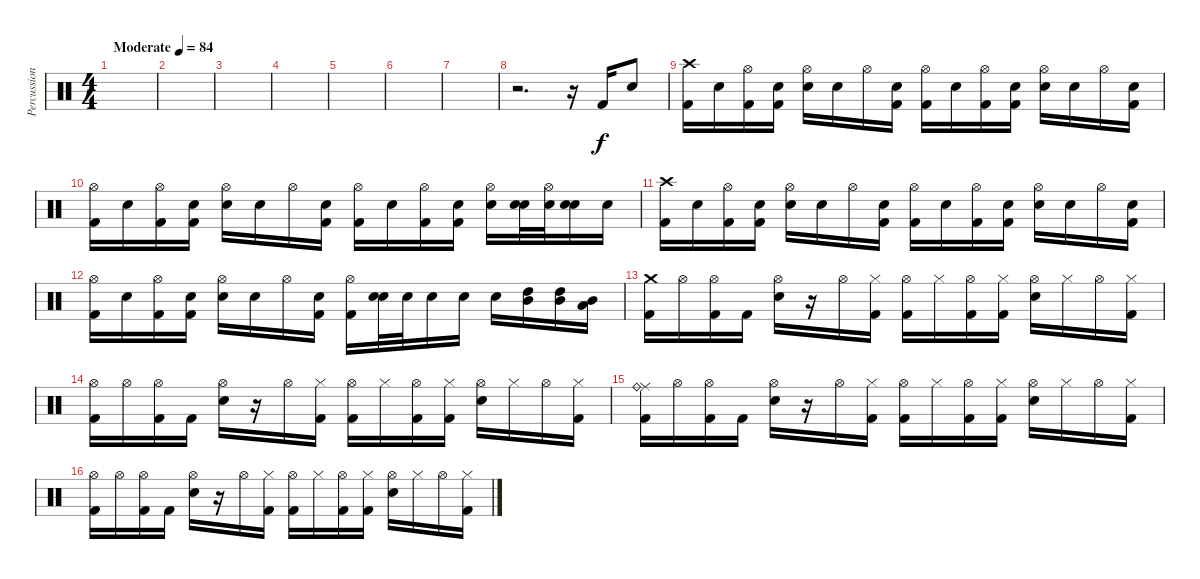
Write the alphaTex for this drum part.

\track ("Percussion" "Percussion") {instrument percussion}
\staff {score}
\articulation defaults
\ts (4 4)
\tempo (84 "Moderate")
\clef neutral
\ks c
|
|
|
|
|
|
|
r.2{d} r.16 "Kick (hit) 2".16 "Snare (hit) 2".8 |
("Crash high (hit)" "Kick (hit) 2").16 "Snare (hit)".16 ("Hi-Hat (open)" "Kick (hit) 2").16 ("Snare (hit)" "Kick (hit) 2").16 ("Hi-Hat (open)" "Snare (hit) 2").16 "Snare (hit)".16 "Hi-Hat (open)".16 ("Snare (hit)" "Kick (hit) 2").16 ("Hi-Hat (open)" "Kick (hit) 2").16 "Snare (hit)".16 ("Hi-Hat (open)" "Kick (hit) 2").16 ("Snare (hit)" "Kick (hit) 2").16 ("Hi-Hat (open)" "Snare (hit) 2").16 "Snare (hit)".16 "Hi-Hat (open)".16 ("Snare (hit)" "Kick (hit) 2").16 |
("Hi-Hat (open)" "Kick (hit) 2").16 "Snare (hit)".16 ("Hi-Hat (open)" "Kick (hit) 2").16 ("Snare (hit)" "Kick (hit) 2").16 ("Hi-Hat (open)" "Snare (hit) 2").16 "Snare (hit)".16 "Hi-Hat (open)".16 ("Snare (hit)" "Kick (hit) 2").16 ("Hi-Hat (open)" "Kick (hit) 2").16 "Snare (hit)".16 ("Hi-Hat (open)" "Kick (hit) 2").16 ("Snare (hit)" "Kick (hit) 2").16 ("Hi-Hat (open)" "Snare (hit) 2").16 ("Snare (hit)" "Snare (hit) 2").32 ("Hi-Hat (open)" "Snare (hit) 2").32 ("Snare (hit)" "Snare (hit) 2").16 "Snare (hit) 2".16 |
("Crash high (hit)" "Kick (hit) 2").16 "Snare (hit)".16 ("Hi-Hat (open)" "Kick (hit) 2").16 ("Snare (hit)" "Kick (hit) 2").16 ("Hi-Hat (open)" "Snare (hit) 2").16 "Snare (hit)".16 "Hi-Hat (open)".16 ("Snare (hit)" "Kick (hit) 2").16 ("Hi-Hat (open)" "Kick (hit) 2").16 "Snare (hit)".16 ("Hi-Hat (open)" "Kick (hit) 2").16 ("Snare (hit)" "Kick (hit) 2").16 ("Hi-Hat (open)" "Snare (hit) 2").16 "Snare (hit)".16 "Hi-Hat (open)".16 ("Snare (hit)" "Kick (hit) 2").16 |
("Hi-Hat (open)" "Kick (hit) 2").16 "Snare (hit)".16 ("Hi-Hat (open)" "Kick (hit) 2").16 ("Snare (hit)" "Kick (hit) 2").16 ("Hi-Hat (open)" "Snare (hit) 2").16 "Snare (hit)".16 "Hi-Hat (open)".16 ("Snare (hit)" "Kick (hit) 2").16 ("Hi-Hat (open)" "Kick (hit) 2").16 ("Snare (hit)" "Snare (hit) 2").32 "Snare (hit) 2".32 "Snare (hit) 2".16 "Snare (hit) 2".16 "Snare (hit) 2".16 ("High Tom (hit)" "Mid Tom (hit)").16 ("High Tom (hit)" "Mid Tom (hit)").16 ("Mid Tom (hit)" "Low Tom (hit)").16 |
("Crash medium (hit)" "Kick (hit) 2").16 "Hi-Hat (open)".16 ("Hi-Hat (open)" "Kick (hit) 2").16 "Kick (hit) 2".16 ("Hi-Hat (open)" "Electric Snare (hit)").16 r.16 "Hi-Hat (open)".16 ("Hi-Hat (closed)" "Kick (hit) 2").16 ("Hi-Hat (open)" "Kick (hit) 2").16 "Hi-Hat (closed)".16 ("Hi-Hat (open)" "Kick (hit) 2").16 ("Hi-Hat (closed)" "Kick (hit) 2").16 ("Hi-Hat (open)" "Electric Snare (hit)").16 "Hi-Hat (closed)".16 "Hi-Hat (open)".16 ("Hi-Hat (closed)" "Kick (hit) 2").16 |
("Hi-Hat (open)" "Kick (hit) 2").16 "Hi-Hat (open)".16 ("Hi-Hat (open)" "Kick (hit) 2").16 "Kick (hit) 2".16 ("Hi-Hat (open)" "Electric Snare (hit)").16 r.16 "Hi-Hat (open)".16 ("Hi-Hat (closed)" "Kick (hit) 2").16 ("Hi-Hat (open)" "Kick (hit) 2").16 "Hi-Hat (closed)".16 ("Hi-Hat (open)" "Kick (hit) 2").16 ("Hi-Hat (closed)" "Kick (hit) 2").16 ("Hi-Hat (open)" "Electric Snare (hit)").16 "Hi-Hat (closed)".16 "Hi-Hat (open)".16 ("Hi-Hat (closed)" "Kick (hit) 2").16 |
("Ride (middle)" "Ride (bell)" "Kick (hit) 2").16 "Hi-Hat (open)".16 ("Hi-Hat (open)" "Kick (hit) 2").16 "Kick (hit) 2".16 ("Hi-Hat (open)" "Electric Snare (hit)").16 r.16 "Hi-Hat (open)".16 ("Hi-Hat (closed)" "Kick (hit) 2").16 ("Hi-Hat (open)" "Kick (hit) 2").16 "Hi-Hat (closed)".16 ("Hi-Hat (open)" "Kick (hit) 2").16 ("Hi-Hat (closed)" "Kick (hit) 2").16 ("Hi-Hat (open)" "Electric Snare (hit)").16 "Hi-Hat (closed)".16 "Hi-Hat (open)".16 ("Hi-Hat (closed)" "Kick (hit) 2").16 |
("Hi-Hat (open)" "Kick (hit) 2").16 "Hi-Hat (open)".16 ("Hi-Hat (open)" "Kick (hit) 2").16 "Kick (hit) 2".16 ("Hi-Hat (open)" "Electric Snare (hit)").16 r.16 "Hi-Hat (open)".16 ("Hi-Hat (closed)" "Kick (hit) 2").16 ("Hi-Hat (open)" "Kick (hit) 2").16 "Hi-Hat (closed)".16 ("Hi-Hat (open)" "Kick (hit) 2").16 ("Hi-Hat (closed)" "Kick (hit) 2").16 ("Hi-Hat (open)" "Electric Snare (hit)").16 "Hi-Hat (closed)".16 "Hi-Hat (open)".16 ("Hi-Hat (closed)" "Kick (hit) 2").16
